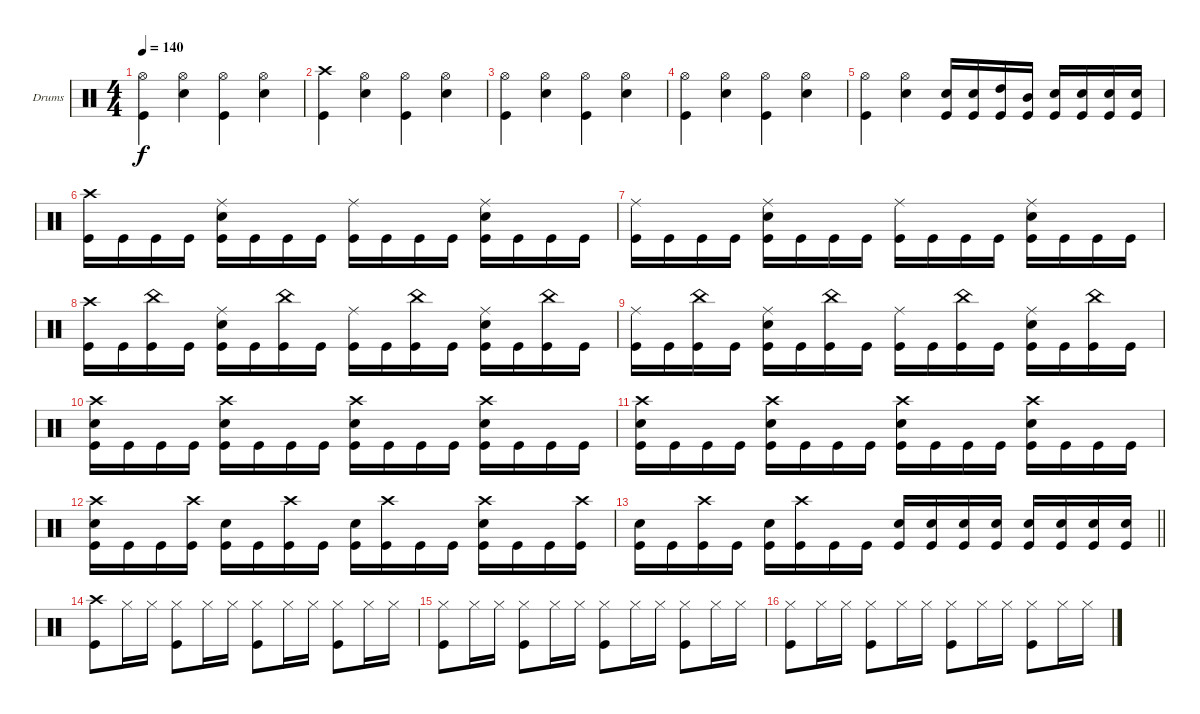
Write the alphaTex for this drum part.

\bracketExtendMode groupsimilarinstruments
\firstSystemTrackNameOrientation horizontal
\otherSystemsTrackNameOrientation horizontal
\track ("Drumkit" "Drums") {instrument percussion}
\staff {score}
\articulation defaults
\ts (4 4)
\tempo 140
\clef neutral
\ks c
("Hi-Hat (open)" "Kick (hit)").4{dy f} ("Hi-Hat (open)" "Snare (hit) 2").4 ("Hi-Hat (open)" "Kick (hit)").4 ("Hi-Hat (open)" "Snare (hit) 2").4 |
("Crash high (hit)" "Kick (hit)").4 ("Hi-Hat (open)" "Snare (hit) 2").4 ("Hi-Hat (open)" "Kick (hit)").4 ("Hi-Hat (open)" "Snare (hit) 2").4 |
("Hi-Hat (open)" "Kick (hit)").4 ("Hi-Hat (open)" "Snare (hit) 2").4 ("Hi-Hat (open)" "Kick (hit)").4 ("Hi-Hat (open)" "Snare (hit) 2").4 |
("Hi-Hat (open)" "Kick (hit)").4 ("Hi-Hat (open)" "Snare (hit) 2").4 ("Hi-Hat (open)" "Kick (hit)").4 ("Hi-Hat (open)" "Snare (hit) 2").4 |
("Hi-Hat (open)" "Kick (hit)").4 ("Hi-Hat (open)" "Snare (hit) 2").4 ("Snare (hit) 2" "Kick (hit)").16 ("Snare (hit) 2" "Kick (hit)").16 ("High Tom (hit)" "Kick (hit)").16 ("Mid Tom (hit)" "Kick (hit)").16 ("Snare (hit) 2" "Kick (hit)").16 ("Snare (hit) 2" "Kick (hit)").16 ("Snare (hit) 2" "Kick (hit)").16 ("Snare (hit) 2" "Kick (hit)").16 |
("Crash high (hit)" "Kick (hit)").16 "Kick (hit)".16 "Kick (hit)".16 "Kick (hit)".16 ("Ride (middle)" "Snare (hit) 2" "Kick (hit)").16 "Kick (hit)".16 "Kick (hit)".16 "Kick (hit)".16 ("Ride (middle)" "Kick (hit)").16 "Kick (hit)".16 "Kick (hit)".16 "Kick (hit)".16 ("Ride (middle)" "Snare (hit) 2" "Kick (hit)").16 "Kick (hit)".16 "Kick (hit)".16 "Kick (hit)".16 |
("Ride (middle)" "Kick (hit)").16 "Kick (hit)".16 "Kick (hit)".16 "Kick (hit)".16 ("Ride (middle)" "Snare (hit) 2" "Kick (hit)").16 "Kick (hit)".16 "Kick (hit)".16 "Kick (hit)".16 ("Ride (middle)" "Kick (hit)").16 "Kick (hit)".16 "Kick (hit)".16 "Kick (hit)".16 ("Ride (middle)" "Snare (hit) 2" "Kick (hit)").16 "Kick (hit)".16 "Kick (hit)".16 "Kick (hit)".16 |
("Crash high (hit)" "Kick (hit)").16 "Kick (hit)".16 ("China (hit)" "Kick (hit)").16 "Kick (hit)".16 ("Ride (middle)" "Snare (hit) 2" "Kick (hit)").16 "Kick (hit)".16 ("China (hit)" "Kick (hit)").16 "Kick (hit)".16 ("Ride (middle)" "Kick (hit)").16 "Kick (hit)".16 ("China (hit)" "Kick (hit)").16 "Kick (hit)".16 ("Ride (middle)" "Snare (hit) 2" "Kick (hit)").16 "Kick (hit)".16 ("China (hit)" "Kick (hit)").16 "Kick (hit)".16 |
("Ride (middle)" "Kick (hit)").16 "Kick (hit)".16 ("China (hit)" "Kick (hit)").16 "Kick (hit)".16 ("Ride (middle)" "Snare (hit) 2" "Kick (hit)").16 "Kick (hit)".16 ("China (hit)" "Kick (hit)").16 "Kick (hit)".16 ("Ride (middle)" "Kick (hit)").16 "Kick (hit)".16 ("China (hit)" "Kick (hit)").16 "Kick (hit)".16 ("Ride (middle)" "Snare (hit) 2" "Kick (hit)").16 "Kick (hit)".16 ("China (hit)" "Kick (hit)").16 "Kick (hit)".16 |
("Crash high (hit)" "Snare (hit) 2" "Kick (hit)").16 "Kick (hit)".16 "Kick (hit)".16 "Kick (hit)".16 ("Crash high (hit)" "Snare (hit) 2" "Kick (hit)").16 "Kick (hit)".16 "Kick (hit)".16 "Kick (hit)".16 ("Crash high (hit)" "Snare (hit) 2" "Kick (hit)").16 "Kick (hit)".16 "Kick (hit)".16 "Kick (hit)".16 ("Crash high (hit)" "Snare (hit) 2" "Kick (hit)").16 "Kick (hit)".16 "Kick (hit)".16 "Kick (hit)".16 |
("Crash high (hit)" "Snare (hit) 2" "Kick (hit)").16 "Kick (hit)".16 "Kick (hit)".16 "Kick (hit)".16 ("Crash high (hit)" "Snare (hit) 2" "Kick (hit)").16 "Kick (hit)".16 "Kick (hit)".16 "Kick (hit)".16 ("Crash high (hit)" "Snare (hit) 2" "Kick (hit)").16 "Kick (hit)".16 "Kick (hit)".16 "Kick (hit)".16 ("Crash high (hit)" "Snare (hit) 2" "Kick (hit)").16 "Kick (hit)".16 "Kick (hit)".16 "Kick (hit)".16 |
("Crash high (hit)" "Snare (hit) 2" "Kick (hit)").16 "Kick (hit)".16 "Kick (hit)".16 ("Crash high (hit)" "Kick (hit)").16 ("Snare (hit) 2" "Kick (hit)").16 "Kick (hit)".16 ("Crash high (hit)" "Kick (hit)").16 "Kick (hit)".16 ("Snare (hit) 2" "Kick (hit)").16 ("Crash high (hit)" "Kick (hit)").16 "Kick (hit)".16 "Kick (hit)".16 ("Crash high (hit)" "Snare (hit) 2" "Kick (hit)").16 "Kick (hit)".16 "Kick (hit)".16 ("Crash high (hit)" "Kick (hit)").16 |
\barLineRight lightlight
("Snare (hit) 2" "Kick (hit)").16 "Kick (hit)".16 ("Crash high (hit)" "Kick (hit)").16 "Kick (hit)".16 ("Snare (hit) 2" "Kick (hit)").16 ("Crash high (hit)" "Kick (hit)").16 "Kick (hit)".16 "Kick (hit)".16 ("Snare (hit) 2" "Kick (hit)").16 ("Snare (hit) 2" "Kick (hit)").16 ("Snare (hit) 2" "Kick (hit)").16 ("Snare (hit) 2" "Kick (hit)").16 ("Snare (hit) 2" "Kick (hit)").16 ("Snare (hit) 2" "Kick (hit)").16 ("Snare (hit) 2" "Kick (hit)").16 ("Snare (hit) 2" "Kick (hit)").16 |
("Crash high (hit)" "Kick (hit)").8 "Hi-Hat (closed)".16 "Hi-Hat (closed)".16 ("Hi-Hat (closed)" "Kick (hit)").8 "Hi-Hat (closed)".16 "Hi-Hat (closed)".16 ("Hi-Hat (closed)" "Kick (hit)").8 "Hi-Hat (closed)".16 "Hi-Hat (closed)".16 ("Hi-Hat (closed)" "Kick (hit)").8 "Hi-Hat (closed)".16 "Hi-Hat (closed)".16 |
("Hi-Hat (closed)" "Kick (hit)").8 "Hi-Hat (closed)".16 "Hi-Hat (closed)".16 ("Hi-Hat (closed)" "Kick (hit)").8 "Hi-Hat (closed)".16 "Hi-Hat (closed)".16 ("Hi-Hat (closed)" "Kick (hit)").8 "Hi-Hat (closed)".16 "Hi-Hat (closed)".16 ("Hi-Hat (closed)" "Kick (hit)").8 "Hi-Hat (closed)".16 "Hi-Hat (closed)".16 |
("Hi-Hat (closed)" "Kick (hit)").8 "Hi-Hat (closed)".16 "Hi-Hat (closed)".16 ("Hi-Hat (closed)" "Kick (hit)").8 "Hi-Hat (closed)".16 "Hi-Hat (closed)".16 ("Hi-Hat (closed)" "Kick (hit)").8 "Hi-Hat (closed)".16 "Hi-Hat (closed)".16 ("Hi-Hat (closed)" "Kick (hit)").8 "Hi-Hat (closed)".16 "Hi-Hat (closed)".16
